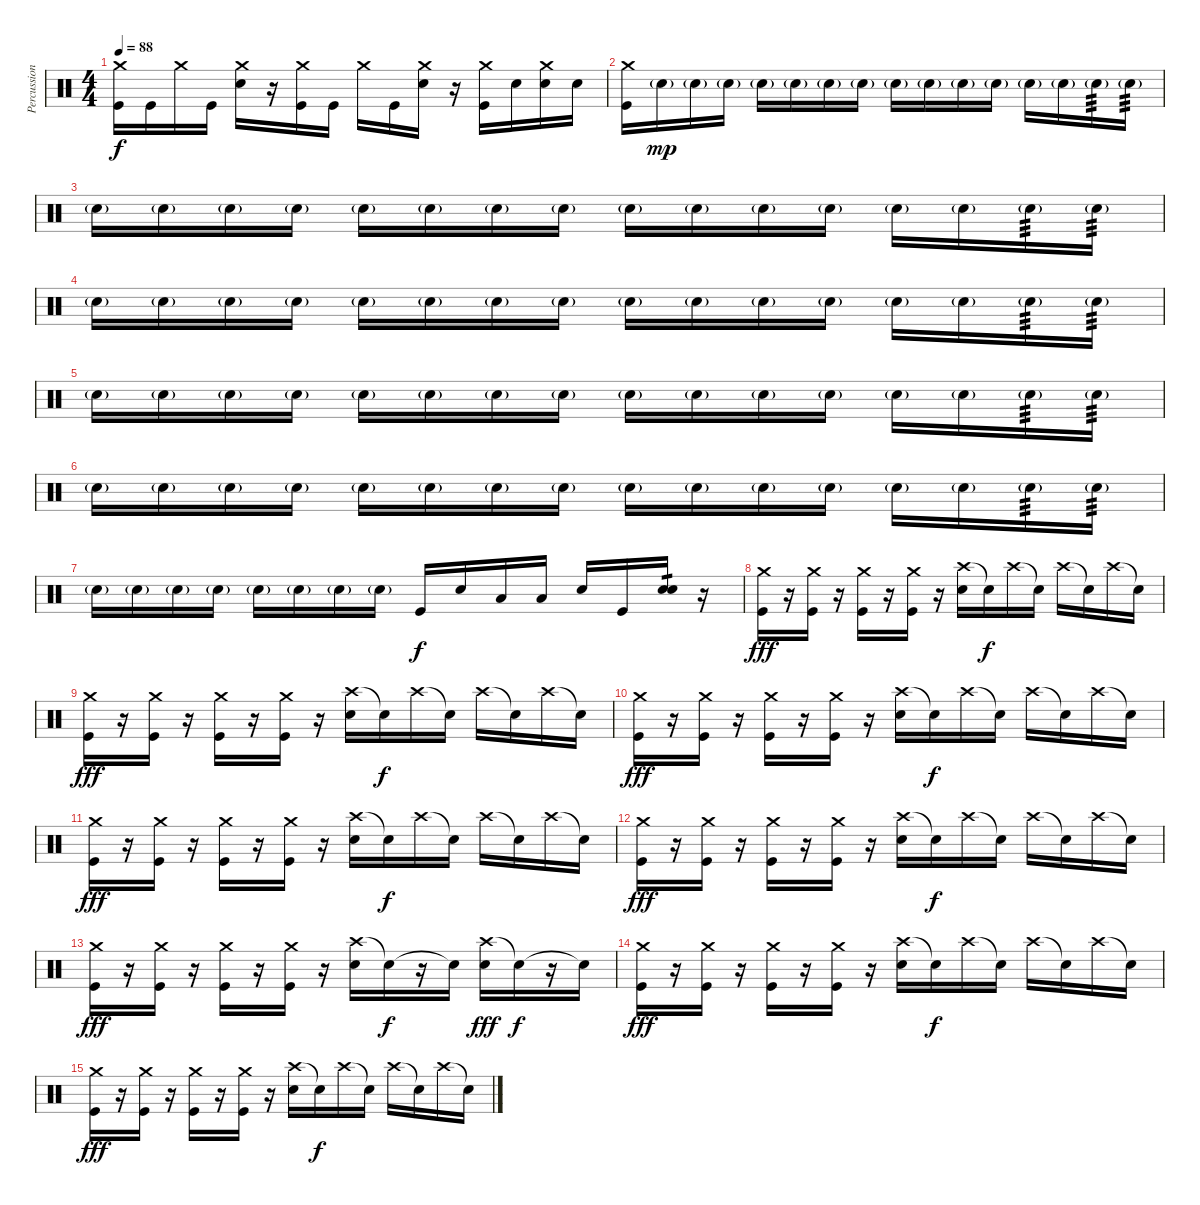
\track ("Percussions" "Percussion") {instrument percussion}
\staff {score}
\articulation defaults
\ts (4 4)
\tempo 88
\clef neutral
\ks c
("Crash medium (hit)" "Kick (hit)").16{dy f} "Kick (hit)".16 "Crash medium (hit)".16 "Kick (hit)".16 ("Crash medium (hit)" "Snare (hit) 2").16 r.16 ("Crash medium (hit)" "Kick (hit)").16 "Kick (hit)".16 "Crash medium (hit)".16 "Kick (hit)".16 ("Crash medium (hit)" "Snare (hit) 2").16 r.16 ("Crash medium (hit)" "Kick (hit)").16 "Snare (hit) 2".16 ("Crash medium (hit)" "Snare (hit) 2").16 "Snare (hit) 2".16 |
("Crash medium (hit)" "Kick (hit)").16 "Snare (hit) 2"{g}.16{dy mp} "Snare (hit) 2"{g}.16 "Snare (hit) 2"{g}.16 "Snare (hit) 2"{g}.16 "Snare (hit) 2"{g}.16 "Snare (hit) 2"{g}.16 "Snare (hit) 2"{g}.16 "Snare (hit) 2"{g}.16 "Snare (hit) 2"{g}.16 "Snare (hit) 2"{g}.16 "Snare (hit) 2"{g}.16 "Snare (hit) 2"{g}.16 "Snare (hit) 2"{g}.16 "Snare (hit) 2"{g}.16{tp 3} "Snare (hit) 2"{g}.16{tp 3} |
"Snare (hit) 2"{g}.16 "Snare (hit) 2"{g}.16 "Snare (hit) 2"{g}.16 "Snare (hit) 2"{g}.16 "Snare (hit) 2"{g}.16 "Snare (hit) 2"{g}.16 "Snare (hit) 2"{g}.16 "Snare (hit) 2"{g}.16 "Snare (hit) 2"{g}.16 "Snare (hit) 2"{g}.16 "Snare (hit) 2"{g}.16 "Snare (hit) 2"{g}.16 "Snare (hit) 2"{g}.16 "Snare (hit) 2"{g}.16 "Snare (hit) 2"{g}.16{tp 3} "Snare (hit) 2"{g}.16{tp 3} |
"Snare (hit) 2"{g}.16 "Snare (hit) 2"{g}.16 "Snare (hit) 2"{g}.16 "Snare (hit) 2"{g}.16 "Snare (hit) 2"{g}.16 "Snare (hit) 2"{g}.16 "Snare (hit) 2"{g}.16 "Snare (hit) 2"{g}.16 "Snare (hit) 2"{g}.16 "Snare (hit) 2"{g}.16 "Snare (hit) 2"{g}.16 "Snare (hit) 2"{g}.16 "Snare (hit) 2"{g}.16 "Snare (hit) 2"{g}.16 "Snare (hit) 2"{g}.16{tp 3} "Snare (hit) 2"{g}.16{tp 3} |
"Snare (hit) 2"{g}.16 "Snare (hit) 2"{g}.16 "Snare (hit) 2"{g}.16 "Snare (hit) 2"{g}.16 "Snare (hit) 2"{g}.16 "Snare (hit) 2"{g}.16 "Snare (hit) 2"{g}.16 "Snare (hit) 2"{g}.16 "Snare (hit) 2"{g}.16 "Snare (hit) 2"{g}.16 "Snare (hit) 2"{g}.16 "Snare (hit) 2"{g}.16 "Snare (hit) 2"{g}.16 "Snare (hit) 2"{g}.16 "Snare (hit) 2"{g}.16{tp 3} "Snare (hit) 2"{g}.16{tp 3} |
"Snare (hit) 2"{g}.16 "Snare (hit) 2"{g}.16 "Snare (hit) 2"{g}.16 "Snare (hit) 2"{g}.16 "Snare (hit) 2"{g}.16 "Snare (hit) 2"{g}.16 "Snare (hit) 2"{g}.16 "Snare (hit) 2"{g}.16 "Snare (hit) 2"{g}.16 "Snare (hit) 2"{g}.16 "Snare (hit) 2"{g}.16 "Snare (hit) 2"{g}.16 "Snare (hit) 2"{g}.16 "Snare (hit) 2"{g}.16 "Snare (hit) 2"{g}.16{tp 3} "Snare (hit) 2"{g}.16{tp 3} |
"Snare (hit) 2"{g}.16 "Snare (hit) 2"{g}.16 "Snare (hit) 2"{g}.16 "Snare (hit) 2"{g}.16 "Snare (hit) 2"{g}.16 "Snare (hit) 2"{g}.16 "Snare (hit) 2"{g}.16 "Snare (hit) 2"{g}.16 "Kick (hit)".16{dy f} "Snare (hit) 2".16 "Low Tom (hit)".16 "Low Tom (hit)".16 "Snare (hit) 2".16 "Kick (hit)".16 ("Electric Snare (hit)" "Snare (hit) 2").16{tp 1} r.16 |
("Crash medium (hit)" "Kick (hit)").16{dy fff} r.16 ("Crash medium (hit)" "Kick (hit)").16 r.16 ("Crash medium (hit)" "Kick (hit)").16 r.16 ("Crash medium (hit)" "Kick (hit)").16 r.16 ("Crash high (hit)" "Snare (hit) 2").16 "Snare (hit)"{t}.16{dy f} "Crash high (hit)".16 "Snare (hit)"{t}.16 "Crash high (hit)".16 "Snare (hit)"{t}.16 "Crash high (hit)".16 "Snare (hit)"{t}.16 |
("Crash medium (hit)" "Kick (hit)").16{dy fff} r.16 ("Crash medium (hit)" "Kick (hit)").16 r.16 ("Crash medium (hit)" "Kick (hit)").16 r.16 ("Crash medium (hit)" "Kick (hit)").16 r.16 ("Crash high (hit)" "Snare (hit) 2").16 "Snare (hit)"{t}.16{dy f} "Crash high (hit)".16 "Snare (hit)"{t}.16 "Crash high (hit)".16 "Snare (hit)"{t}.16 "Crash high (hit)".16 "Snare (hit)"{t}.16 |
("Crash medium (hit)" "Kick (hit)").16{dy fff} r.16 ("Crash medium (hit)" "Kick (hit)").16 r.16 ("Crash medium (hit)" "Kick (hit)").16 r.16 ("Crash medium (hit)" "Kick (hit)").16 r.16 ("Crash high (hit)" "Snare (hit) 2").16 "Snare (hit)"{t}.16{dy f} "Crash high (hit)".16 "Snare (hit)"{t}.16 "Crash high (hit)".16 "Snare (hit)"{t}.16 "Crash high (hit)".16 "Snare (hit)"{t}.16 |
("Crash medium (hit)" "Kick (hit)").16{dy fff} r.16 ("Crash medium (hit)" "Kick (hit)").16 r.16 ("Crash medium (hit)" "Kick (hit)").16 r.16 ("Crash medium (hit)" "Kick (hit)").16 r.16 ("Crash high (hit)" "Snare (hit) 2").16 "Snare (hit)"{t}.16{dy f} "Crash high (hit)".16 "Snare (hit)"{t}.16 "Crash high (hit)".16 "Snare (hit)"{t}.16 "Crash high (hit)".16 "Snare (hit)"{t}.16 |
("Crash medium (hit)" "Kick (hit)").16{dy fff} r.16 ("Crash medium (hit)" "Kick (hit)").16 r.16 ("Crash medium (hit)" "Kick (hit)").16 r.16 ("Crash medium (hit)" "Kick (hit)").16 r.16 ("Crash high (hit)" "Snare (hit) 2").16 "Snare (hit)"{t}.16{dy f} "Crash high (hit)".16 "Snare (hit)"{t}.16 "Crash high (hit)".16 "Snare (hit)"{t}.16 "Crash high (hit)".16 "Snare (hit)"{t}.16 |
("Crash medium (hit)" "Kick (hit)").16{dy fff} r.16 ("Crash medium (hit)" "Kick (hit)").16 r.16 ("Crash medium (hit)" "Kick (hit)").16 r.16 ("Crash medium (hit)" "Kick (hit)").16 r.16 ("Crash high (hit)" "Snare (hit) 2").16 "Snare (hit)"{t}.16{dy f} r.16 "Snare (hit)"{t}.16 ("Crash high (hit)" "Snare (hit) 2").16{dy fff} "Snare (hit)"{t}.16{dy f} r.16 "Snare (hit)"{t}.16 |
("Crash medium (hit)" "Kick (hit)").16{dy fff} r.16 ("Crash medium (hit)" "Kick (hit)").16 r.16 ("Crash medium (hit)" "Kick (hit)").16 r.16 ("Crash medium (hit)" "Kick (hit)").16 r.16 ("Crash high (hit)" "Snare (hit) 2").16 "Snare (hit)"{t}.16{dy f} "Crash high (hit)".16 "Snare (hit)"{t}.16 "Crash high (hit)".16 "Snare (hit)"{t}.16 "Crash high (hit)".16 "Snare (hit)"{t}.16 |
("Crash medium (hit)" "Kick (hit)").16{dy fff} r.16 ("Crash medium (hit)" "Kick (hit)").16 r.16 ("Crash medium (hit)" "Kick (hit)").16 r.16 ("Crash medium (hit)" "Kick (hit)").16 r.16 ("Crash high (hit)" "Snare (hit) 2").16 "Snare (hit)"{t}.16{dy f} "Crash high (hit)".16 "Snare (hit)"{t}.16 "Crash high (hit)".16 "Snare (hit)"{t}.16 "Crash high (hit)".16 "Snare (hit)"{t}.16
